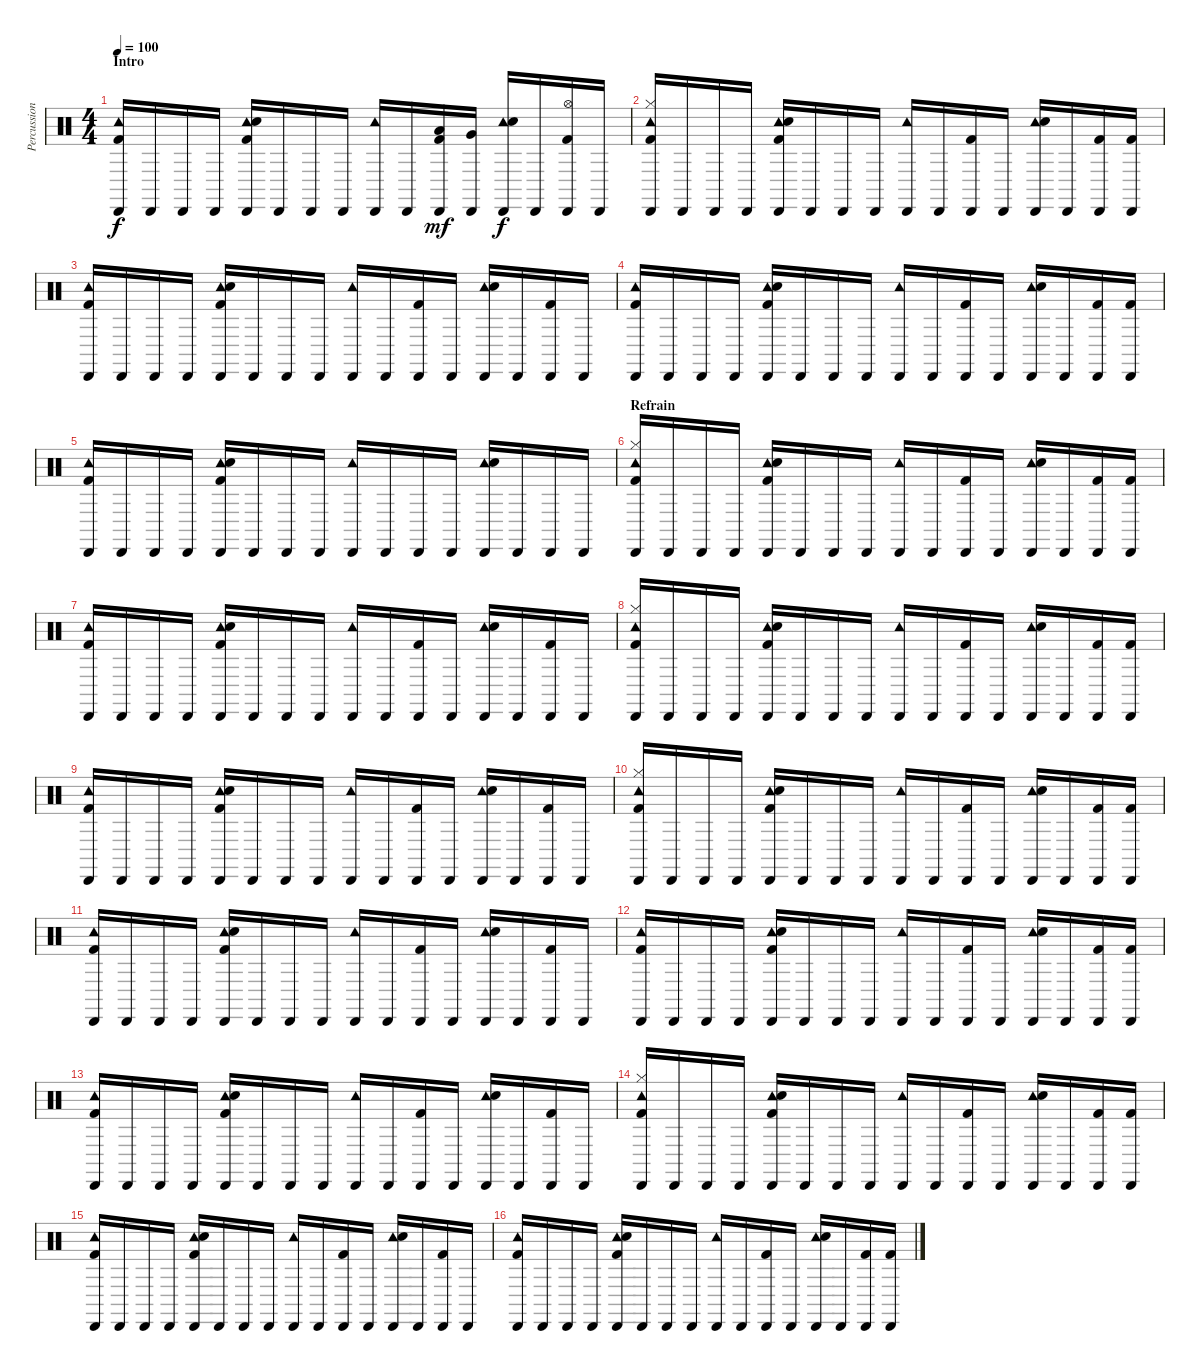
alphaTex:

\track ("Percussions" "Percussion") {instrument percussion}
\staff {score}
\articulation defaults
\ts (4 4)
\section ("" "Intro")
\tempo 100
\clef neutral
\ks c
("Cabasa (hit)" "Tambourine (hit)" "Kick (hit) 2").16{dy f} "Cabasa (hit)".16 "Cabasa (hit)".16 "Cabasa (hit)".16 ("Cabasa (hit)" "Tambourine (hit)" "Hand Clap (hit)" "Kick (hit) 2").16 "Cabasa (hit)".16 "Cabasa (hit)".16 "Cabasa (hit)".16 ("Cabasa (hit)" "Tambourine (hit)").16 "Cabasa (hit)".16 ("Cabasa (hit)" "Low Floor Tom (hit)" "Kick (hit) 2").16{dy mf} ("Cabasa (hit)" "Very Low Tom (hit)").16 ("Cabasa (hit)" "Tambourine (hit)" "Hand Clap (hit)").16{dy f} "Cabasa (hit)".16 ("Cabasa (hit)" "Hi-Hat (open)" "Kick (hit) 2").16 "Cabasa (hit)".16 |
("Cabasa (hit)" "Tambourine (hit)" "Hi-Hat (closed)" "Kick (hit) 2").16 "Cabasa (hit)".16 "Cabasa (hit)".16 "Cabasa (hit)".16 ("Cabasa (hit)" "Tambourine (hit)" "Hand Clap (hit)" "Kick (hit) 2").16 "Cabasa (hit)".16 "Cabasa (hit)".16 "Cabasa (hit)".16 ("Cabasa (hit)" "Tambourine (hit)").16 "Cabasa (hit)".16 ("Cabasa (hit)" "Kick (hit) 2").16 "Cabasa (hit)".16 ("Cabasa (hit)" "Tambourine (hit)" "Hand Clap (hit)").16 "Cabasa (hit)".16 ("Cabasa (hit)" "Kick (hit) 2").16 ("Cabasa (hit)" "Kick (hit) 2").16 |
("Cabasa (hit)" "Tambourine (hit)" "Kick (hit) 2").16 "Cabasa (hit)".16 "Cabasa (hit)".16 "Cabasa (hit)".16 ("Cabasa (hit)" "Tambourine (hit)" "Hand Clap (hit)" "Kick (hit) 2").16 "Cabasa (hit)".16 "Cabasa (hit)".16 "Cabasa (hit)".16 ("Cabasa (hit)" "Tambourine (hit)").16 "Cabasa (hit)".16 ("Cabasa (hit)" "Kick (hit) 2").16 "Cabasa (hit)".16 ("Cabasa (hit)" "Tambourine (hit)" "Hand Clap (hit)").16 "Cabasa (hit)".16 ("Cabasa (hit)" "Kick (hit) 2").16 "Cabasa (hit)".16 |
("Cabasa (hit)" "Tambourine (hit)" "Kick (hit) 2").16 "Cabasa (hit)".16 "Cabasa (hit)".16 "Cabasa (hit)".16 ("Cabasa (hit)" "Tambourine (hit)" "Hand Clap (hit)" "Kick (hit) 2").16 "Cabasa (hit)".16 "Cabasa (hit)".16 "Cabasa (hit)".16 ("Cabasa (hit)" "Tambourine (hit)").16 "Cabasa (hit)".16 ("Cabasa (hit)" "Kick (hit) 2").16 "Cabasa (hit)".16 ("Cabasa (hit)" "Tambourine (hit)" "Hand Clap (hit)").16 "Cabasa (hit)".16 ("Cabasa (hit)" "Kick (hit) 2").16 ("Cabasa (hit)" "Kick (hit) 2").16 |
("Cabasa (hit)" "Tambourine (hit)" "Kick (hit) 2").16 "Cabasa (hit)".16 "Cabasa (hit)".16 "Cabasa (hit)".16 ("Cabasa (hit)" "Tambourine (hit)" "Hand Clap (hit)" "Kick (hit) 2").16 "Cabasa (hit)".16 "Cabasa (hit)".16 "Cabasa (hit)".16 ("Cabasa (hit)" "Tambourine (hit)").16 "Cabasa (hit)".16 "Cabasa (hit)".16 "Cabasa (hit)".16 ("Cabasa (hit)" "Tambourine (hit)" "Hand Clap (hit)").16 "Cabasa (hit)".16 "Cabasa (hit)".16 "Cabasa (hit)".16 |
\section ("" "Refrain")
("Cabasa (hit)" "Tambourine (hit)" "Hi-Hat (closed)" "Kick (hit) 2").16 "Cabasa (hit)".16 "Cabasa (hit)".16 "Cabasa (hit)".16 ("Cabasa (hit)" "Tambourine (hit)" "Hand Clap (hit)" "Kick (hit) 2").16 "Cabasa (hit)".16 "Cabasa (hit)".16 "Cabasa (hit)".16 ("Cabasa (hit)" "Tambourine (hit)").16 "Cabasa (hit)".16 ("Cabasa (hit)" "Kick (hit) 2").16 "Cabasa (hit)".16 ("Cabasa (hit)" "Tambourine (hit)" "Hand Clap (hit)").16 "Cabasa (hit)".16 ("Cabasa (hit)" "Kick (hit) 2").16 ("Cabasa (hit)" "Kick (hit) 2").16 |
("Cabasa (hit)" "Tambourine (hit)" "Kick (hit) 2").16 "Cabasa (hit)".16 "Cabasa (hit)".16 "Cabasa (hit)".16 ("Cabasa (hit)" "Tambourine (hit)" "Hand Clap (hit)" "Kick (hit) 2").16 "Cabasa (hit)".16 "Cabasa (hit)".16 "Cabasa (hit)".16 ("Cabasa (hit)" "Tambourine (hit)").16 "Cabasa (hit)".16 ("Cabasa (hit)" "Kick (hit) 2").16 "Cabasa (hit)".16 ("Cabasa (hit)" "Tambourine (hit)" "Hand Clap (hit)").16 "Cabasa (hit)".16 ("Cabasa (hit)" "Kick (hit) 2").16 "Cabasa (hit)".16 |
("Cabasa (hit)" "Tambourine (hit)" "Hi-Hat (closed)" "Kick (hit) 2").16 "Cabasa (hit)".16 "Cabasa (hit)".16 "Cabasa (hit)".16 ("Cabasa (hit)" "Tambourine (hit)" "Hand Clap (hit)" "Kick (hit) 2").16 "Cabasa (hit)".16 "Cabasa (hit)".16 "Cabasa (hit)".16 ("Cabasa (hit)" "Tambourine (hit)").16 "Cabasa (hit)".16 ("Cabasa (hit)" "Kick (hit) 2").16 "Cabasa (hit)".16 ("Cabasa (hit)" "Tambourine (hit)" "Hand Clap (hit)").16 "Cabasa (hit)".16 ("Cabasa (hit)" "Kick (hit) 2").16 ("Cabasa (hit)" "Kick (hit) 2").16 |
("Cabasa (hit)" "Tambourine (hit)" "Kick (hit) 2").16 "Cabasa (hit)".16 "Cabasa (hit)".16 "Cabasa (hit)".16 ("Cabasa (hit)" "Tambourine (hit)" "Hand Clap (hit)" "Kick (hit) 2").16 "Cabasa (hit)".16 "Cabasa (hit)".16 "Cabasa (hit)".16 ("Cabasa (hit)" "Tambourine (hit)").16 "Cabasa (hit)".16 ("Cabasa (hit)" "Kick (hit) 2").16 "Cabasa (hit)".16 ("Cabasa (hit)" "Tambourine (hit)" "Hand Clap (hit)").16 "Cabasa (hit)".16 ("Cabasa (hit)" "Kick (hit) 2").16 "Cabasa (hit)".16 |
("Cabasa (hit)" "Tambourine (hit)" "Hi-Hat (closed)" "Kick (hit) 2").16 "Cabasa (hit)".16 "Cabasa (hit)".16 "Cabasa (hit)".16 ("Cabasa (hit)" "Tambourine (hit)" "Hand Clap (hit)" "Kick (hit) 2").16 "Cabasa (hit)".16 "Cabasa (hit)".16 "Cabasa (hit)".16 ("Cabasa (hit)" "Tambourine (hit)").16 "Cabasa (hit)".16 ("Cabasa (hit)" "Kick (hit) 2").16 "Cabasa (hit)".16 ("Cabasa (hit)" "Tambourine (hit)" "Hand Clap (hit)").16 "Cabasa (hit)".16 ("Cabasa (hit)" "Kick (hit) 2").16 ("Cabasa (hit)" "Kick (hit) 2").16 |
("Cabasa (hit)" "Tambourine (hit)" "Kick (hit) 2").16 "Cabasa (hit)".16 "Cabasa (hit)".16 "Cabasa (hit)".16 ("Cabasa (hit)" "Tambourine (hit)" "Hand Clap (hit)" "Kick (hit) 2").16 "Cabasa (hit)".16 "Cabasa (hit)".16 "Cabasa (hit)".16 ("Cabasa (hit)" "Tambourine (hit)").16 "Cabasa (hit)".16 ("Cabasa (hit)" "Kick (hit) 2").16 "Cabasa (hit)".16 ("Cabasa (hit)" "Tambourine (hit)" "Hand Clap (hit)").16 "Cabasa (hit)".16 ("Cabasa (hit)" "Kick (hit) 2").16 "Cabasa (hit)".16 |
("Cabasa (hit)" "Tambourine (hit)" "Kick (hit) 2").16 "Cabasa (hit)".16 "Cabasa (hit)".16 "Cabasa (hit)".16 ("Cabasa (hit)" "Tambourine (hit)" "Hand Clap (hit)" "Kick (hit) 2").16 "Cabasa (hit)".16 "Cabasa (hit)".16 "Cabasa (hit)".16 ("Cabasa (hit)" "Tambourine (hit)").16 "Cabasa (hit)".16 ("Cabasa (hit)" "Kick (hit) 2").16 "Cabasa (hit)".16 ("Cabasa (hit)" "Tambourine (hit)" "Hand Clap (hit)").16 "Cabasa (hit)".16 ("Cabasa (hit)" "Kick (hit) 2").16 ("Cabasa (hit)" "Kick (hit) 2").16 |
("Cabasa (hit)" "Tambourine (hit)" "Kick (hit) 2").16 "Cabasa (hit)".16 "Cabasa (hit)".16 "Cabasa (hit)".16 ("Cabasa (hit)" "Tambourine (hit)" "Hand Clap (hit)" "Kick (hit) 2").16 "Cabasa (hit)".16 "Cabasa (hit)".16 "Cabasa (hit)".16 ("Cabasa (hit)" "Tambourine (hit)").16 "Cabasa (hit)".16 ("Cabasa (hit)" "Kick (hit) 2").16 "Cabasa (hit)".16 ("Cabasa (hit)" "Tambourine (hit)" "Hand Clap (hit)").16 "Cabasa (hit)".16 ("Cabasa (hit)" "Kick (hit) 2").16 "Cabasa (hit)".16 |
("Cabasa (hit)" "Tambourine (hit)" "Hi-Hat (closed)" "Kick (hit) 2").16 "Cabasa (hit)".16 "Cabasa (hit)".16 "Cabasa (hit)".16 ("Cabasa (hit)" "Tambourine (hit)" "Hand Clap (hit)" "Kick (hit) 2").16 "Cabasa (hit)".16 "Cabasa (hit)".16 "Cabasa (hit)".16 ("Cabasa (hit)" "Tambourine (hit)").16 "Cabasa (hit)".16 ("Cabasa (hit)" "Kick (hit) 2").16 "Cabasa (hit)".16 ("Cabasa (hit)" "Tambourine (hit)" "Hand Clap (hit)").16 "Cabasa (hit)".16 ("Cabasa (hit)" "Kick (hit) 2").16 ("Cabasa (hit)" "Kick (hit) 2").16 |
("Cabasa (hit)" "Tambourine (hit)" "Kick (hit) 2").16 "Cabasa (hit)".16 "Cabasa (hit)".16 "Cabasa (hit)".16 ("Cabasa (hit)" "Tambourine (hit)" "Hand Clap (hit)" "Kick (hit) 2").16 "Cabasa (hit)".16 "Cabasa (hit)".16 "Cabasa (hit)".16 ("Cabasa (hit)" "Tambourine (hit)").16 "Cabasa (hit)".16 ("Cabasa (hit)" "Kick (hit) 2").16 "Cabasa (hit)".16 ("Cabasa (hit)" "Tambourine (hit)" "Hand Clap (hit)").16 "Cabasa (hit)".16 ("Cabasa (hit)" "Kick (hit) 2").16 "Cabasa (hit)".16 |
("Cabasa (hit)" "Tambourine (hit)" "Kick (hit) 2").16 "Cabasa (hit)".16 "Cabasa (hit)".16 "Cabasa (hit)".16 ("Cabasa (hit)" "Tambourine (hit)" "Hand Clap (hit)" "Kick (hit) 2").16 "Cabasa (hit)".16 "Cabasa (hit)".16 "Cabasa (hit)".16 ("Cabasa (hit)" "Tambourine (hit)").16 "Cabasa (hit)".16 ("Cabasa (hit)" "Kick (hit) 2").16 "Cabasa (hit)".16 ("Cabasa (hit)" "Tambourine (hit)" "Hand Clap (hit)").16 "Cabasa (hit)".16 ("Cabasa (hit)" "Kick (hit) 2").16 ("Cabasa (hit)" "Kick (hit) 2").16
